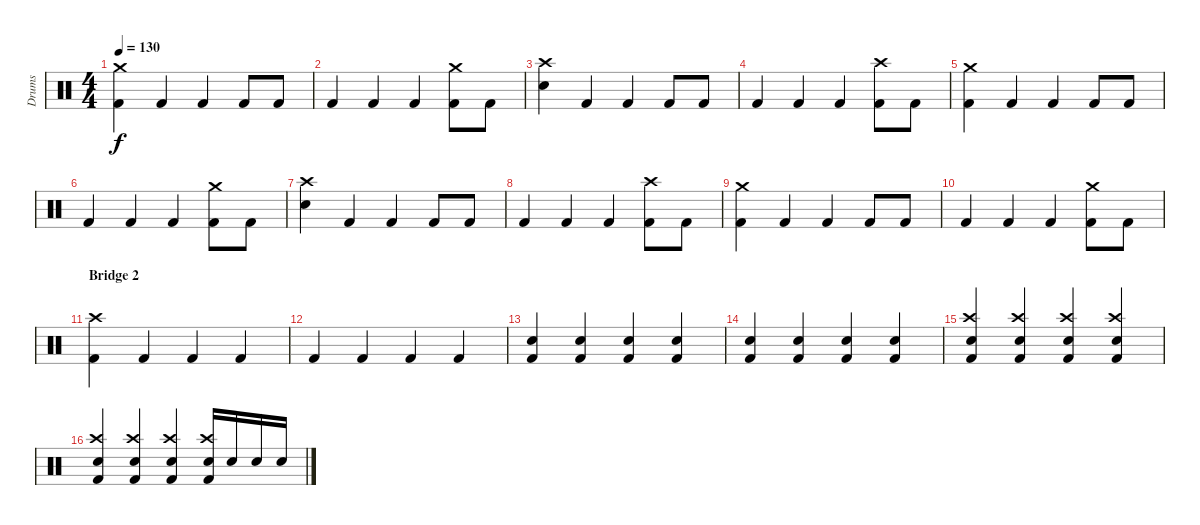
\track ("Drums" "Drums") {instrument percussion}
\staff {score}
\articulation defaults
\ts (4 4)
\tempo 130
\clef neutral
\ks c
("Crash medium (hit)" "Kick (hit) 2").4{dy f} "Kick (hit) 2".4 "Kick (hit) 2".4 "Kick (hit) 2".8 "Kick (hit) 2".8 |
"Kick (hit) 2".4 "Kick (hit) 2".4 "Kick (hit) 2".4 ("Crash medium (hit)" "Kick (hit) 2").8 "Kick (hit) 2".8 |
("Crash high (hit)" "Electric Snare (hit)").4 "Kick (hit) 2".4 "Kick (hit) 2".4 "Kick (hit) 2".8 "Kick (hit) 2".8 |
"Kick (hit) 2".4 "Kick (hit) 2".4 "Kick (hit) 2".4 ("Crash high (hit)" "Kick (hit) 2").8 "Kick (hit) 2".8 |
("Crash medium (hit)" "Kick (hit) 2").4 "Kick (hit) 2".4 "Kick (hit) 2".4 "Kick (hit) 2".8 "Kick (hit) 2".8 |
"Kick (hit) 2".4 "Kick (hit) 2".4 "Kick (hit) 2".4 ("Crash medium (hit)" "Kick (hit) 2").8 "Kick (hit) 2".8 |
("Crash high (hit)" "Electric Snare (hit)").4 "Kick (hit) 2".4 "Kick (hit) 2".4 "Kick (hit) 2".8 "Kick (hit) 2".8 |
"Kick (hit) 2".4 "Kick (hit) 2".4 "Kick (hit) 2".4 ("Crash high (hit)" "Kick (hit) 2").8 "Kick (hit) 2".8 |
("Crash medium (hit)" "Kick (hit) 2").4 "Kick (hit) 2".4 "Kick (hit) 2".4 "Kick (hit) 2".8 "Kick (hit) 2".8 |
"Kick (hit) 2".4 "Kick (hit) 2".4 "Kick (hit) 2".4 ("Crash medium (hit)" "Kick (hit) 2").8 "Kick (hit) 2".8 |
\section ("" "Bridge 2")
("Crash high (hit)" "Kick (hit) 2").4 "Kick (hit) 2".4 "Kick (hit) 2".4 "Kick (hit) 2".4 |
"Kick (hit) 2".4 "Kick (hit) 2".4 "Kick (hit) 2".4 "Kick (hit) 2".4 |
("Electric Snare (hit)" "Kick (hit) 2").4 ("Electric Snare (hit)" "Kick (hit) 2").4 ("Electric Snare (hit)" "Kick (hit) 2").4 ("Electric Snare (hit)" "Kick (hit) 2").4 |
("Electric Snare (hit)" "Kick (hit) 2").4 ("Electric Snare (hit)" "Kick (hit) 2").4 ("Electric Snare (hit)" "Kick (hit) 2").4 ("Electric Snare (hit)" "Kick (hit) 2").4 |
("Crash high (hit)" "Electric Snare (hit)" "Kick (hit) 2").4 ("Crash high (hit)" "Electric Snare (hit)" "Kick (hit) 2").4 ("Crash high (hit)" "Electric Snare (hit)" "Kick (hit) 2").4 ("Crash high (hit)" "Electric Snare (hit)" "Kick (hit) 2").4 |
("Crash high (hit)" "Electric Snare (hit)" "Kick (hit) 2").4 ("Crash high (hit)" "Electric Snare (hit)" "Kick (hit) 2").4 ("Crash high (hit)" "Electric Snare (hit)" "Kick (hit) 2").4 ("Crash high (hit)" "Electric Snare (hit)" "Kick (hit) 2").16 "Electric Snare (hit)".16 "Electric Snare (hit)".16 "Electric Snare (hit)".16
